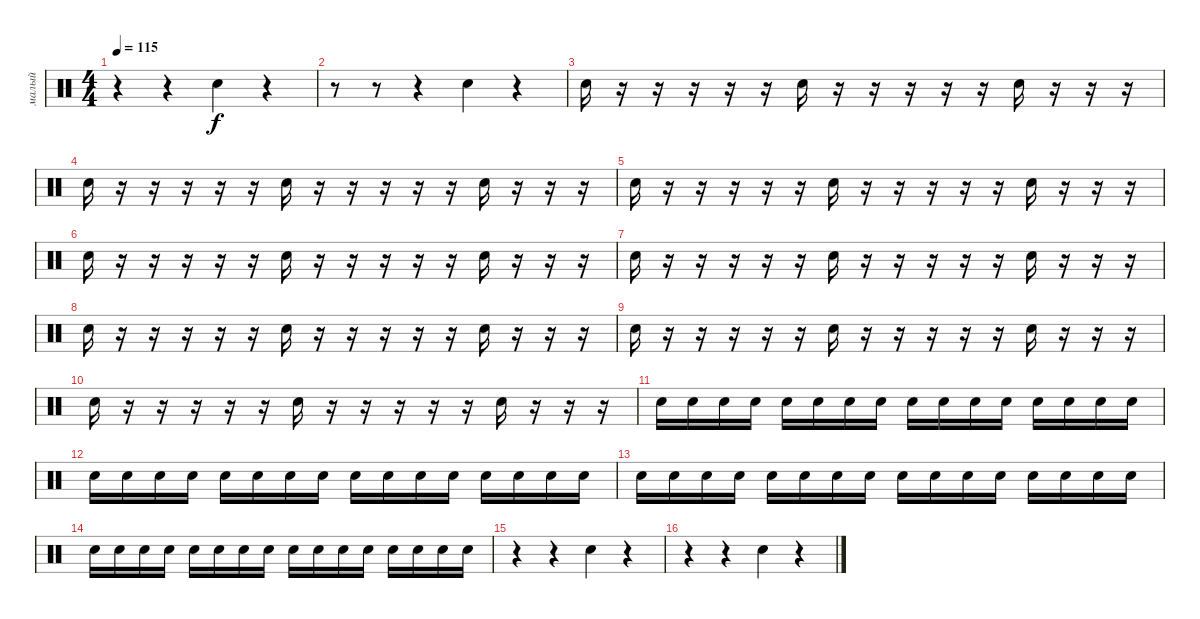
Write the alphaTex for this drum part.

\track ("малый" "малый") {mute instrument percussion}
\staff {score}
\articulation defaults
\ts (4 4)
\tempo 115
\clef neutral
\ks c
r.4{dy f} r.4 "Electric Snare (hit)".4 r.4 |
r.8 r.8 r.4 "Electric Snare (hit)".4 r.4 |
"Electric Snare (hit)".16 r.16 r.16 r.16 r.16 r.16 "Electric Snare (hit)".16 r.16 r.16 r.16 r.16 r.16 "Electric Snare (hit)".16 r.16 r.16 r.16 |
"Electric Snare (hit)".16 r.16 r.16 r.16 r.16 r.16 "Electric Snare (hit)".16 r.16 r.16 r.16 r.16 r.16 "Electric Snare (hit)".16 r.16 r.16 r.16 |
"Electric Snare (hit)".16 r.16 r.16 r.16 r.16 r.16 "Electric Snare (hit)".16 r.16 r.16 r.16 r.16 r.16 "Electric Snare (hit)".16 r.16 r.16 r.16 |
"Electric Snare (hit)".16 r.16 r.16 r.16 r.16 r.16 "Electric Snare (hit)".16 r.16 r.16 r.16 r.16 r.16 "Electric Snare (hit)".16 r.16 r.16 r.16 |
"Electric Snare (hit)".16 r.16 r.16 r.16 r.16 r.16 "Electric Snare (hit)".16 r.16 r.16 r.16 r.16 r.16 "Electric Snare (hit)".16 r.16 r.16 r.16 |
"Electric Snare (hit)".16 r.16 r.16 r.16 r.16 r.16 "Electric Snare (hit)".16 r.16 r.16 r.16 r.16 r.16 "Electric Snare (hit)".16 r.16 r.16 r.16 |
"Electric Snare (hit)".16 r.16 r.16 r.16 r.16 r.16 "Electric Snare (hit)".16 r.16 r.16 r.16 r.16 r.16 "Electric Snare (hit)".16 r.16 r.16 r.16 |
"Electric Snare (hit)".16 r.16 r.16 r.16 r.16 r.16 "Electric Snare (hit)".16 r.16 r.16 r.16 r.16 r.16 "Electric Snare (hit)".16 r.16 r.16 r.16 |
"Electric Snare (hit)".16 "Electric Snare (hit)".16 "Electric Snare (hit)".16 "Electric Snare (hit)".16 "Electric Snare (hit)".16 "Electric Snare (hit)".16 "Electric Snare (hit)".16 "Electric Snare (hit)".16 "Electric Snare (hit)".16 "Electric Snare (hit)".16 "Electric Snare (hit)".16 "Electric Snare (hit)".16 "Electric Snare (hit)".16 "Electric Snare (hit)".16 "Electric Snare (hit)".16 "Electric Snare (hit)".16 |
"Electric Snare (hit)".16 "Electric Snare (hit)".16 "Electric Snare (hit)".16 "Electric Snare (hit)".16 "Electric Snare (hit)".16 "Electric Snare (hit)".16 "Electric Snare (hit)".16 "Electric Snare (hit)".16 "Electric Snare (hit)".16 "Electric Snare (hit)".16 "Electric Snare (hit)".16 "Electric Snare (hit)".16 "Electric Snare (hit)".16 "Electric Snare (hit)".16 "Electric Snare (hit)".16 "Electric Snare (hit)".16 |
"Electric Snare (hit)".16 "Electric Snare (hit)".16 "Electric Snare (hit)".16 "Electric Snare (hit)".16 "Electric Snare (hit)".16 "Electric Snare (hit)".16 "Electric Snare (hit)".16 "Electric Snare (hit)".16 "Electric Snare (hit)".16 "Electric Snare (hit)".16 "Electric Snare (hit)".16 "Electric Snare (hit)".16 "Electric Snare (hit)".16 "Electric Snare (hit)".16 "Electric Snare (hit)".16 "Electric Snare (hit)".16 |
"Electric Snare (hit)".16 "Electric Snare (hit)".16 "Electric Snare (hit)".16 "Electric Snare (hit)".16 "Electric Snare (hit)".16 "Electric Snare (hit)".16 "Electric Snare (hit)".16 "Electric Snare (hit)".16 "Electric Snare (hit)".16 "Electric Snare (hit)".16 "Electric Snare (hit)".16 "Electric Snare (hit)".16 "Electric Snare (hit)".16 "Electric Snare (hit)".16 "Electric Snare (hit)".16 "Electric Snare (hit)".16 |
r.4 r.4 "Electric Snare (hit)".4 r.4 |
r.4 r.4 "Electric Snare (hit)".4 r.4
